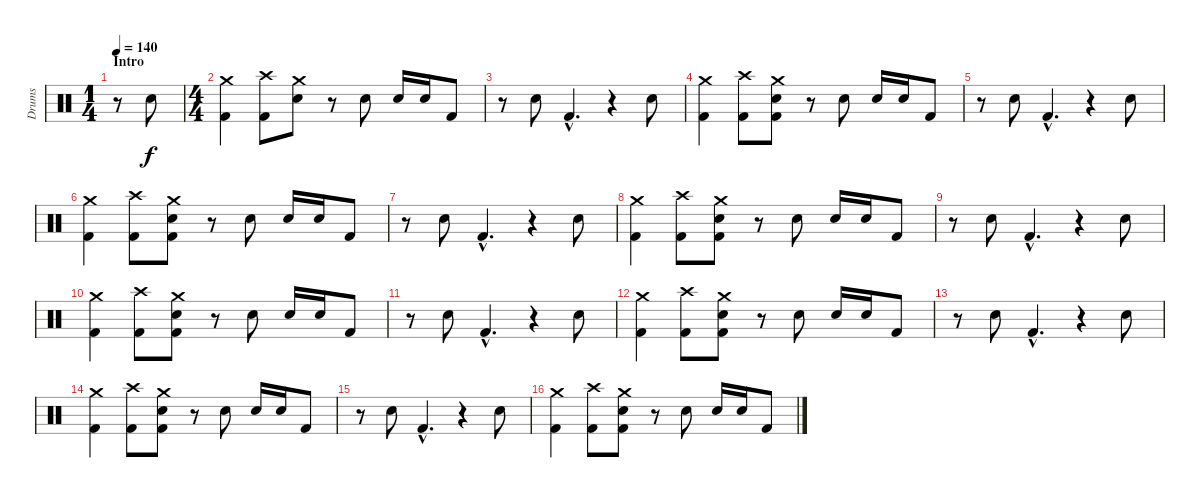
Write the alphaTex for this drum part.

\track ("Drums" "Drums") {instrument percussion}
\staff {score}
\articulation defaults
\ts (1 4)
\section ("" "Intro")
\tempo 140
\clef neutral
\ks c
r.8{dy f} "Electric Snare (hit)".8 |
\ts (4 4)
("Kick (hit) 2" "Crash medium (hit)").4 ("Kick (hit) 2" "Crash high (hit)").8 ("Electric Snare (hit)" "Crash medium (hit)").8 r.8 "Electric Snare (hit)".8 "Electric Snare (hit)".16 "Electric Snare (hit)".16 "Kick (hit) 2".8 |
r.8 "Electric Snare (hit)".8 "Kick (hit) 2"{hac}.4{d} r.4 "Electric Snare (hit)".8 |
("Kick (hit) 2" "Crash medium (hit)").4 ("Kick (hit) 2" "Crash high (hit)").8 ("Kick (hit) 2" "Electric Snare (hit)" "Crash medium (hit)").8 r.8 "Electric Snare (hit)".8 "Electric Snare (hit)".16 "Electric Snare (hit)".16 "Kick (hit) 2".8 |
r.8 "Electric Snare (hit)".8 "Kick (hit) 2"{hac}.4{d} r.4 "Electric Snare (hit)".8 |
("Kick (hit) 2" "Crash medium (hit)").4 ("Kick (hit) 2" "Crash high (hit)").8 ("Kick (hit) 2" "Electric Snare (hit)" "Crash medium (hit)").8 r.8 "Electric Snare (hit)".8 "Electric Snare (hit)".16 "Electric Snare (hit)".16 "Kick (hit) 2".8 |
r.8 "Electric Snare (hit)".8 "Kick (hit) 2"{hac}.4{d} r.4 "Electric Snare (hit)".8 |
("Kick (hit) 2" "Crash medium (hit)").4 ("Kick (hit) 2" "Crash high (hit)").8 ("Kick (hit) 2" "Electric Snare (hit)" "Crash medium (hit)").8 r.8 "Electric Snare (hit)".8 "Electric Snare (hit)".16 "Electric Snare (hit)".16 "Kick (hit) 2".8 |
r.8 "Electric Snare (hit)".8 "Kick (hit) 2"{hac}.4{d} r.4 "Electric Snare (hit)".8 |
("Kick (hit) 2" "Crash medium (hit)").4 ("Kick (hit) 2" "Crash high (hit)").8 ("Kick (hit) 2" "Electric Snare (hit)" "Crash medium (hit)").8 r.8 "Electric Snare (hit)".8 "Electric Snare (hit)".16 "Electric Snare (hit)".16 "Kick (hit) 2".8 |
r.8 "Electric Snare (hit)".8 "Kick (hit) 2"{hac}.4{d} r.4 "Electric Snare (hit)".8 |
("Kick (hit) 2" "Crash medium (hit)").4 ("Kick (hit) 2" "Crash high (hit)").8 ("Kick (hit) 2" "Electric Snare (hit)" "Crash medium (hit)").8 r.8 "Electric Snare (hit)".8 "Electric Snare (hit)".16 "Electric Snare (hit)".16 "Kick (hit) 2".8 |
r.8 "Electric Snare (hit)".8 "Kick (hit) 2"{hac}.4{d} r.4 "Electric Snare (hit)".8 |
("Kick (hit) 2" "Crash medium (hit)").4 ("Kick (hit) 2" "Crash high (hit)").8 ("Kick (hit) 2" "Electric Snare (hit)" "Crash medium (hit)").8 r.8 "Electric Snare (hit)".8 "Electric Snare (hit)".16 "Electric Snare (hit)".16 "Kick (hit) 2".8 |
r.8 "Electric Snare (hit)".8 "Kick (hit) 2"{hac}.4{d} r.4 "Electric Snare (hit)".8 |
("Kick (hit) 2" "Crash medium (hit)").4 ("Kick (hit) 2" "Crash high (hit)").8 ("Kick (hit) 2" "Electric Snare (hit)" "Crash medium (hit)").8 r.8 "Electric Snare (hit)".8 "Electric Snare (hit)".16 "Electric Snare (hit)".16 "Kick (hit) 2".8
